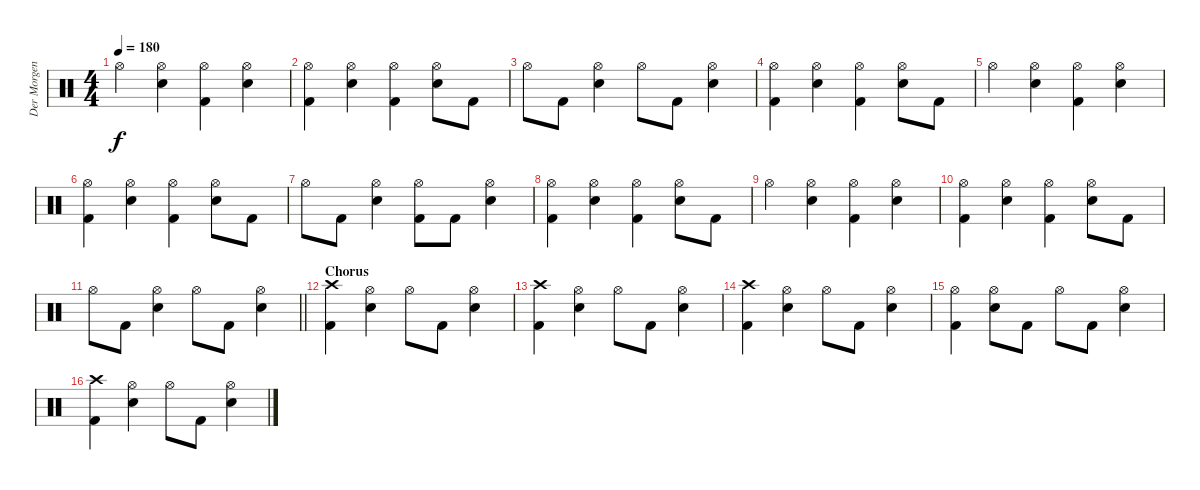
\track ("Der Morgenstern" "Der Morgen") {instrument percussion}
\staff {score}
\articulation defaults
\ts (4 4)
\tempo 180
\clef neutral
\ks c "Hi-Hat (open)".4{dy f}
("Hi-Hat (open)" "Electric Snare (hit)").4 ("Hi-Hat (open)" "Kick (hit) 2").4 ("Hi-Hat (open)" "Electric Snare (hit)").4 |
("Hi-Hat (open)" "Kick (hit) 2").4 ("Hi-Hat (open)" "Electric Snare (hit)").4 ("Hi-Hat (open)" "Kick (hit) 2").4 ("Hi-Hat (open)" "Electric Snare (hit)").8 "Kick (hit) 2".8 |
"Hi-Hat (open)".8 "Kick (hit) 2".8 ("Hi-Hat (open)" "Electric Snare (hit)").4 "Hi-Hat (open)".8 "Kick (hit) 2".8 ("Hi-Hat (open)" "Electric Snare (hit)").4 |
("Hi-Hat (open)" "Kick (hit) 2").4 ("Hi-Hat (open)" "Electric Snare (hit)").4 ("Hi-Hat (open)" "Kick (hit) 2").4 ("Hi-Hat (open)" "Electric Snare (hit)").8 "Kick (hit) 2".8 |
"Hi-Hat (open)".4 ("Hi-Hat (open)" "Electric Snare (hit)").4 ("Hi-Hat (open)" "Kick (hit) 2").4 ("Hi-Hat (open)" "Electric Snare (hit)").4 |
("Hi-Hat (open)" "Kick (hit) 2").4 ("Hi-Hat (open)" "Electric Snare (hit)").4 ("Hi-Hat (open)" "Kick (hit) 2").4 ("Hi-Hat (open)" "Electric Snare (hit)").8 "Kick (hit) 2".8 |
"Hi-Hat (open)".8 "Kick (hit) 2".8 ("Hi-Hat (open)" "Electric Snare (hit)").4 ("Hi-Hat (open)" "Kick (hit) 2").8 "Kick (hit) 2".8 ("Hi-Hat (open)" "Electric Snare (hit)").4 |
("Hi-Hat (open)" "Kick (hit) 2").4 ("Hi-Hat (open)" "Electric Snare (hit)").4 ("Hi-Hat (open)" "Kick (hit) 2").4 ("Hi-Hat (open)" "Electric Snare (hit)").8 "Kick (hit) 2".8 |
"Hi-Hat (open)".4 ("Hi-Hat (open)" "Electric Snare (hit)").4 ("Hi-Hat (open)" "Kick (hit) 2").4 ("Hi-Hat (open)" "Electric Snare (hit)").4 |
("Hi-Hat (open)" "Kick (hit) 2").4 ("Hi-Hat (open)" "Electric Snare (hit)").4 ("Hi-Hat (open)" "Kick (hit) 2").4 ("Hi-Hat (open)" "Electric Snare (hit)").8 "Kick (hit) 2".8 |
\barLineRight lightlight "Hi-Hat (open)".8 "Kick (hit) 2".8
("Hi-Hat (open)" "Electric Snare (hit)").4 "Hi-Hat (open)".8 "Kick (hit) 2".8 ("Hi-Hat (open)" "Electric Snare (hit)").4 |
\section ("" "Chorus")
("Crash high (hit)" "Kick (hit) 2").4 ("Hi-Hat (open)" "Electric Snare (hit)").4 "Hi-Hat (open)".8 "Kick (hit) 2".8 ("Hi-Hat (open)" "Electric Snare (hit)").4 |
("Crash high (hit)" "Kick (hit) 2").4 ("Hi-Hat (open)" "Electric Snare (hit)").4 "Hi-Hat (open)".8 "Kick (hit) 2".8 ("Hi-Hat (open)" "Electric Snare (hit)").4 |
("Crash high (hit)" "Kick (hit) 2").4 ("Hi-Hat (open)" "Electric Snare (hit)").4 "Hi-Hat (open)".8 "Kick (hit) 2".8 ("Hi-Hat (open)" "Electric Snare (hit)").4 |
("Hi-Hat (open)" "Kick (hit) 2").4 ("Hi-Hat (open)" "Electric Snare (hit)").8 "Kick (hit) 2".8 "Hi-Hat (open)".8 "Kick (hit) 2".8 ("Hi-Hat (open)" "Electric Snare (hit)").4 |
("Crash high (hit)" "Kick (hit) 2").4 ("Hi-Hat (open)" "Electric Snare (hit)").4 "Hi-Hat (open)".8 "Kick (hit) 2".8 ("Hi-Hat (open)" "Electric Snare (hit)").4
